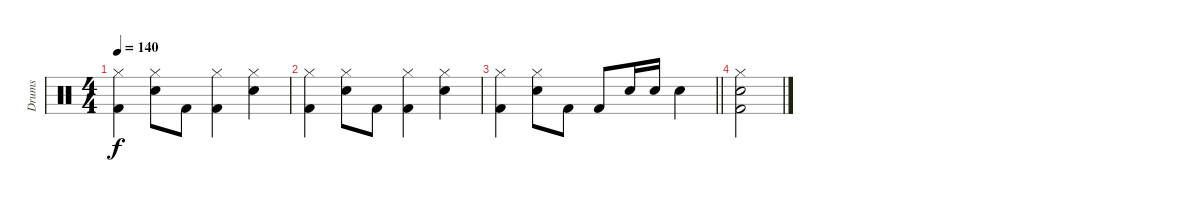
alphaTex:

\track ("Drums" "Drums") {instrument percussion}
\staff {score}
\articulation defaults
\ts (4 4)
\tempo 140
\clef neutral
\ks c
("Hi-Hat (closed)" "Kick (hit) 2").4{dy f} ("Hi-Hat (closed)" "Electric Snare (hit)").8 "Kick (hit) 2".8 ("Hi-Hat (closed)" "Kick (hit) 2").4 ("Hi-Hat (closed)" "Electric Snare (hit)").4 |
("Hi-Hat (closed)" "Kick (hit) 2").4 ("Hi-Hat (closed)" "Electric Snare (hit)").8 "Kick (hit) 2".8 ("Hi-Hat (closed)" "Kick (hit) 2").4 ("Hi-Hat (closed)" "Electric Snare (hit)").4 |
\barLineRight lightlight
("Hi-Hat (closed)" "Kick (hit) 2").4 ("Hi-Hat (closed)" "Electric Snare (hit)").8 "Kick (hit) 2".8 "Kick (hit) 2".8 "Electric Snare (hit)".16 "Electric Snare (hit)".16 "Electric Snare (hit)".4 |
("Hi-Hat (closed)" "Electric Snare (hit)" "Kick (hit) 2").2
